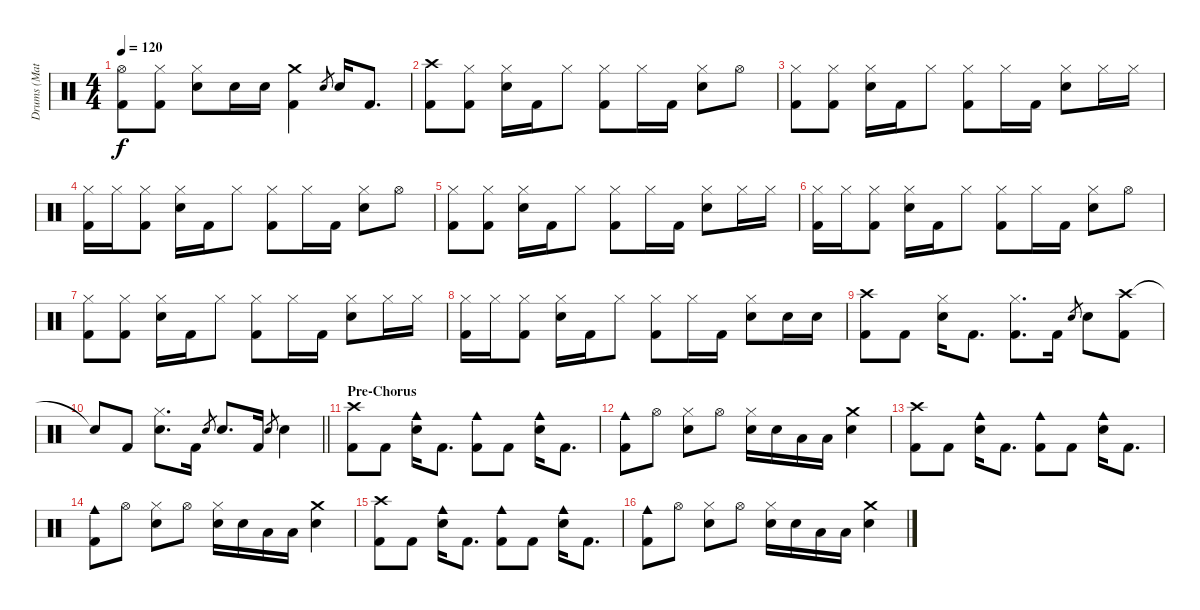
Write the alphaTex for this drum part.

\track ("Drums (Matt)" "Drums (Mat") {instrument percussion}
\staff {score}
\articulation defaults
\ts (4 4)
\tempo 120
\clef neutral
\ks c
("Hi-Hat (open)" "Kick (hit) 2").8{dy f} ("Hi-Hat (closed)" "Kick (hit) 2").8 ("Hi-Hat (closed)" "Snare (hit) 2").8 "Snare (hit) 2".16 "Snare (hit) 2".16 ("Crash medium (hit)" "Kick (hit) 2").4 "Snare (hit) 2".8{gr} "Snare (hit) 2".16 "Kick (hit) 2".8{d} |
("Crash high (hit)" "Kick (hit) 2").8 ("Hi-Hat (closed)" "Kick (hit) 2").8 ("Hi-Hat (closed)" "Snare (hit) 2").16 "Kick (hit) 2".16 "Hi-Hat (closed)".8 ("Hi-Hat (closed)" "Kick (hit) 2").8 "Hi-Hat (closed)".16 "Kick (hit) 2".16 ("Hi-Hat (closed)" "Snare (hit) 2").8 "Hi-Hat (open)".8 |
("Hi-Hat (closed)" "Kick (hit) 2").8 ("Hi-Hat (closed)" "Kick (hit) 2").8 ("Hi-Hat (closed)" "Snare (hit) 2").16 "Kick (hit) 2".16 "Hi-Hat (closed)".8 ("Hi-Hat (closed)" "Kick (hit) 2").8 "Hi-Hat (closed)".16 "Kick (hit) 2".16 ("Hi-Hat (closed)" "Snare (hit) 2").8 "Hi-Hat (closed)".16 "Hi-Hat (closed)".16 |
("Hi-Hat (closed)" "Kick (hit) 2").16 "Hi-Hat (closed)".16 ("Hi-Hat (closed)" "Kick (hit) 2").8 ("Hi-Hat (closed)" "Snare (hit) 2").16 "Kick (hit) 2".16 "Hi-Hat (closed)".8 ("Hi-Hat (closed)" "Kick (hit) 2").8 "Hi-Hat (closed)".16 "Kick (hit) 2".16 ("Hi-Hat (closed)" "Snare (hit) 2").8 "Hi-Hat (open)".8 |
("Hi-Hat (closed)" "Kick (hit) 2").8 ("Hi-Hat (closed)" "Kick (hit) 2").8 ("Hi-Hat (closed)" "Snare (hit) 2").16 "Kick (hit) 2".16 "Hi-Hat (closed)".8 ("Hi-Hat (closed)" "Kick (hit) 2").8 "Hi-Hat (closed)".16 "Kick (hit) 2".16 ("Hi-Hat (closed)" "Snare (hit) 2").8 "Hi-Hat (closed)".16 "Hi-Hat (closed)".16 |
("Hi-Hat (closed)" "Kick (hit) 2").16 "Hi-Hat (closed)".16 ("Hi-Hat (closed)" "Kick (hit) 2").8 ("Hi-Hat (closed)" "Snare (hit) 2").16 "Kick (hit) 2".16 "Hi-Hat (closed)".8 ("Hi-Hat (closed)" "Kick (hit) 2").8 "Hi-Hat (closed)".16 "Kick (hit) 2".16 ("Hi-Hat (closed)" "Snare (hit) 2").8 "Hi-Hat (open)".8 |
("Hi-Hat (closed)" "Kick (hit) 2").8 ("Hi-Hat (closed)" "Kick (hit) 2").8 ("Hi-Hat (closed)" "Snare (hit) 2").16 "Kick (hit) 2".16 "Hi-Hat (closed)".8 ("Hi-Hat (closed)" "Kick (hit) 2").8 "Hi-Hat (closed)".16 "Kick (hit) 2".16 ("Hi-Hat (closed)" "Snare (hit) 2").8 "Hi-Hat (closed)".16 "Hi-Hat (closed)".16 |
("Hi-Hat (closed)" "Kick (hit) 2").16 "Hi-Hat (closed)".16 ("Hi-Hat (closed)" "Kick (hit) 2").8 ("Hi-Hat (closed)" "Snare (hit) 2").16 "Kick (hit) 2".16 "Hi-Hat (closed)".8 ("Hi-Hat (closed)" "Kick (hit) 2").8 "Hi-Hat (closed)".16 "Kick (hit) 2".16 ("Hi-Hat (closed)" "Snare (hit) 2").8 "Snare (hit) 2".16 "Snare (hit) 2".16 |
("Crash high (hit)" "Kick (hit) 2").8 "Kick (hit) 2".8 ("Hi-Hat (closed)" "Snare (hit) 2").16 "Kick (hit) 2".8{d} ("Hi-Hat (closed)" "Kick (hit) 2").8{d} "Kick (hit) 2".16 "Snare (hit) 2".8{gr} "Snare (hit) 2".8 ("Crash high (hit)" "Kick (hit) 2").8 |
\barLineRight lightlight "Snare (hit)"{t}.8 "Kick (hit) 2".8
("Hi-Hat (closed)" "Snare (hit) 2").8{d} "Kick (hit) 2".16 "Snare (hit) 2".8{gr} "Snare (hit) 2".8{d} "Kick (hit) 2".16 "Snare (hit) 2".8{gr} "Snare (hit) 2".4 |
\section ("" "Pre-Chorus")
("Crash high (hit)" "Kick (hit) 2").8 "Kick (hit) 2".8 ("Cowbell medium (hit)" "Snare (hit) 2").16 "Kick (hit) 2".8{d} ("Cowbell medium (hit)" "Kick (hit) 2").8 "Kick (hit) 2".8 ("Cowbell medium (hit)" "Snare (hit) 2").16 "Kick (hit) 2".8{d} |
("Cowbell medium (hit)" "Kick (hit) 2").8 "Hi-Hat (open)".8 ("Hi-Hat (closed)" "Snare (hit) 2").8 "Hi-Hat (open)".8 ("Hi-Hat (closed)" "Snare (hit) 2").16 "Snare (hit) 2".16 "Low Tom (hit)".16 "Low Tom (hit)".16 ("Crash medium (hit)" "Snare (hit) 2").4 |
("Crash high (hit)" "Kick (hit) 2").8 "Kick (hit) 2".8 ("Cowbell medium (hit)" "Snare (hit) 2").16 "Kick (hit) 2".8{d} ("Cowbell medium (hit)" "Kick (hit) 2").8 "Kick (hit) 2".8 ("Cowbell medium (hit)" "Snare (hit) 2").16 "Kick (hit) 2".8{d} |
("Cowbell medium (hit)" "Kick (hit) 2").8 "Hi-Hat (open)".8 ("Hi-Hat (closed)" "Snare (hit) 2").8 "Hi-Hat (open)".8 ("Hi-Hat (closed)" "Snare (hit) 2").16 "Snare (hit) 2".16 "Low Tom (hit)".16 "Low Tom (hit)".16 ("Crash medium (hit)" "Snare (hit) 2").4 |
("Crash high (hit)" "Kick (hit) 2").8 "Kick (hit) 2".8 ("Cowbell medium (hit)" "Snare (hit) 2").16 "Kick (hit) 2".8{d} ("Cowbell medium (hit)" "Kick (hit) 2").8 "Kick (hit) 2".8 ("Cowbell medium (hit)" "Snare (hit) 2").16 "Kick (hit) 2".8{d} |
("Cowbell medium (hit)" "Kick (hit) 2").8 "Hi-Hat (open)".8 ("Hi-Hat (closed)" "Snare (hit) 2").8 "Hi-Hat (open)".8 ("Hi-Hat (closed)" "Snare (hit) 2").16 "Snare (hit) 2".16 "Low Tom (hit)".16 "Low Tom (hit)".16 ("Crash medium (hit)" "Snare (hit) 2").4
